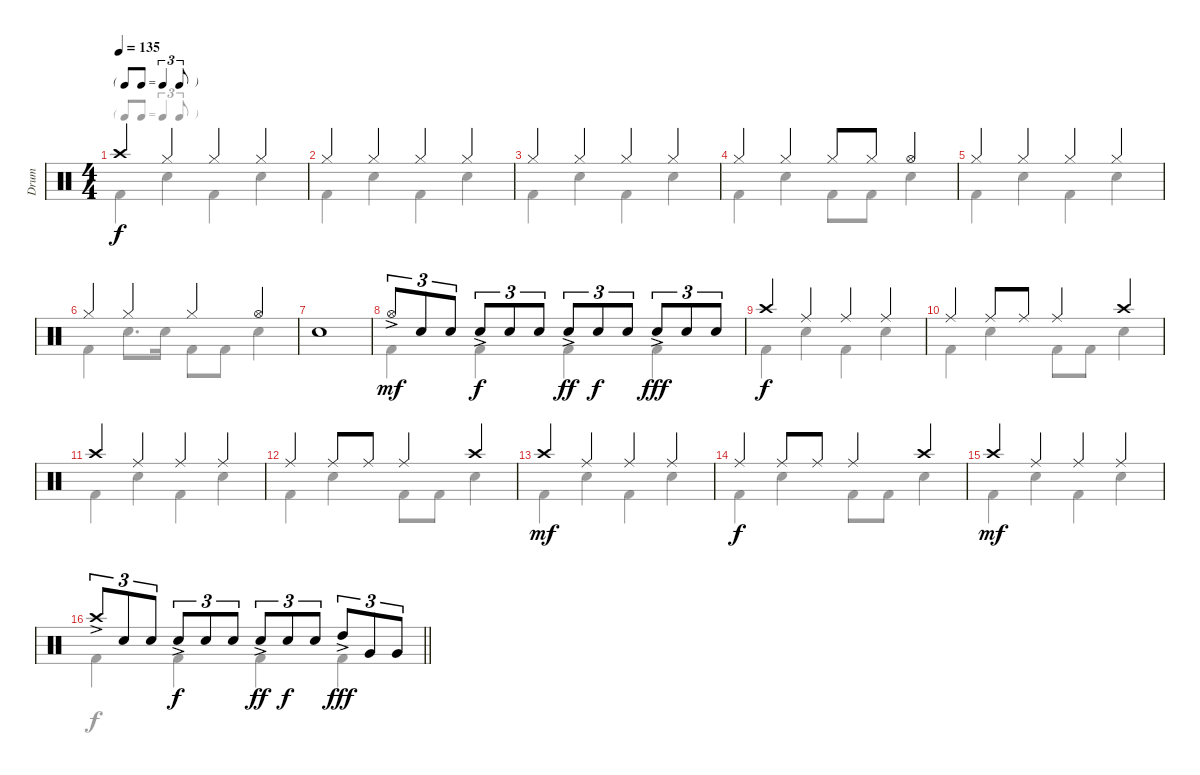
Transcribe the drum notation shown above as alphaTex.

\track ("Drum" "Drum") {instrument percussion}
\staff {score}
\articulation defaults
\voice
\ts (4 4)
\tf triplet8th
\tempo 135
\clef neutral
\ks c "Crash high (hit)".4{dy f} "Hi-Hat (closed)".4 "Hi-Hat (closed)".4 "Hi-Hat (closed)".4
|
"Hi-Hat (closed)".4 "Hi-Hat (closed)".4 "Hi-Hat (closed)".4 "Hi-Hat (closed)".4 |
"Hi-Hat (closed)".4 "Hi-Hat (closed)".4 "Hi-Hat (closed)".4 "Hi-Hat (closed)".4 |
"Hi-Hat (closed)".4 "Hi-Hat (closed)".4 "Hi-Hat (closed)".8 "Hi-Hat (closed)".8 "Hi-Hat (open)".4 |
"Hi-Hat (closed)".4 "Hi-Hat (closed)".4 "Hi-Hat (closed)".4 "Hi-Hat (closed)".4 |
"Hi-Hat (closed)".4 "Hi-Hat (closed)".4 "Hi-Hat (closed)".4 "Hi-Hat (open)".4 |
"Snare (hit) 2".1 |
"Hi-Hat (open)"{ac}.8{tu (3 2) dy mf} "Snare (hit) 2".8{tu (3 2)} "Snare (hit) 2".8{tu (3 2)} "Snare (hit) 2"{ac}.8{tu (3 2) dy f} "Snare (hit) 2".8{tu (3 2)} "Snare (hit) 2".8{tu (3 2)} "Snare (hit) 2"{ac}.8{tu (3 2) dy ff} "Snare (hit) 2".8{tu (3 2) dy f} "Snare (hit) 2".8{tu (3 2)} "Snare (hit) 2"{ac}.8{tu (3 2) dy fff} "Snare (hit) 2".8{tu (3 2)} "Snare (hit) 2".8{tu (3 2)} |
"Crash high (hit)".4{dy f} "Ride (middle)".4 "Ride (middle)".4 "Ride (middle)".4 |
"Ride (middle)".4 "Ride (middle)".8 "Ride (middle)".8 "Ride (middle)".4 "Crash high (hit)".4 |
"Crash high (hit)".4 "Ride (middle)".4 "Ride (middle)".4 "Ride (middle)".4 |
"Ride (middle)".4 "Ride (middle)".8 "Ride (middle)".8 "Ride (middle)".4 "Crash high (hit)".4 |
"Crash high (hit)".4{dy mf} "Ride (middle)".4 "Ride (middle)".4 "Ride (middle)".4 |
"Ride (middle)".4{dy f} "Ride (middle)".8 "Ride (middle)".8 "Ride (middle)".4 "Crash high (hit)".4 |
"Crash high (hit)".4{dy mf} "Ride (middle)".4 "Ride (middle)".4 "Ride (middle)".4 |
\barLineRight lightlight "Crash high (hit)"{ac}.8{tu (3 2)} "Snare (hit) 2".8{tu (3 2)} "Snare (hit) 2".8{tu (3 2)} "Snare (hit) 2"{ac}.8{tu (3 2) dy f} "Snare (hit) 2".8{tu (3 2)} "Snare (hit) 2".8{tu (3 2)} "Snare (hit) 2"{ac}.8{tu (3 2) dy ff} "Snare (hit) 2".8{tu (3 2) dy f} "Snare (hit) 2".8{tu (3 2)} "High Tom (hit)"{ac}.8{tu (3 2) dy fff} "Very Low Tom (hit)".8{tu (3 2)} "Very Low Tom (hit)".8{tu (3 2)}
\voice
\clef neutral
\ottava regular
\simile none
\ks c "Kick (hit) 2".4{dy f} "Snare (hit) 2".4 "Kick (hit) 2".4 "Snare (hit) 2".4
|
"Kick (hit) 2".4 "Snare (hit) 2".4 "Kick (hit) 2".4 "Snare (hit) 2".4 |
"Kick (hit) 2".4 "Snare (hit) 2".4 "Kick (hit) 2".4 "Snare (hit) 2".4 |
"Kick (hit) 2".4 "Snare (hit) 2".4 "Kick (hit) 2".8 "Kick (hit) 2".8 "Snare (hit) 2".4 |
"Kick (hit) 2".4 "Snare (hit) 2".4 "Kick (hit) 2".4 "Snare (hit) 2".4 |
"Kick (hit) 2".4 "Snare (hit) 2".8{d} "Snare (hit) 2".16 "Kick (hit) 2".8 "Kick (hit) 2".8 "Snare (hit) 2".4 |
|
"Kick (hit) 2".4 "Kick (hit) 2".4 "Kick (hit) 2".4 "Kick (hit) 2".4 |
"Kick (hit) 2".4 "Snare (hit) 2".4 "Kick (hit) 2".4 "Snare (hit) 2".4 |
"Kick (hit) 2".4 "Snare (hit) 2".4 "Kick (hit) 2".8 "Kick (hit) 2".8 "Snare (hit) 2".4 |
"Kick (hit) 2".4 "Snare (hit) 2".4 "Kick (hit) 2".4 "Snare (hit) 2".4 |
"Kick (hit) 2".4 "Snare (hit) 2".4 "Kick (hit) 2".8 "Kick (hit) 2".8 "Snare (hit) 2".4 |
"Kick (hit) 2".4{dy mf} "Snare (hit) 2".4 "Kick (hit) 2".4 "Snare (hit) 2".4 |
"Kick (hit) 2".4{dy f} "Snare (hit) 2".4 "Kick (hit) 2".8 "Kick (hit) 2".8 "Snare (hit) 2".4 |
"Kick (hit) 2".4{dy mf} "Snare (hit) 2".4 "Kick (hit) 2".4 "Snare (hit) 2".4 |
\barLineRight lightlight "Kick (hit) 2".4{dy f} "Kick (hit) 2".4 "Kick (hit) 2".4 "Kick (hit) 2".4
